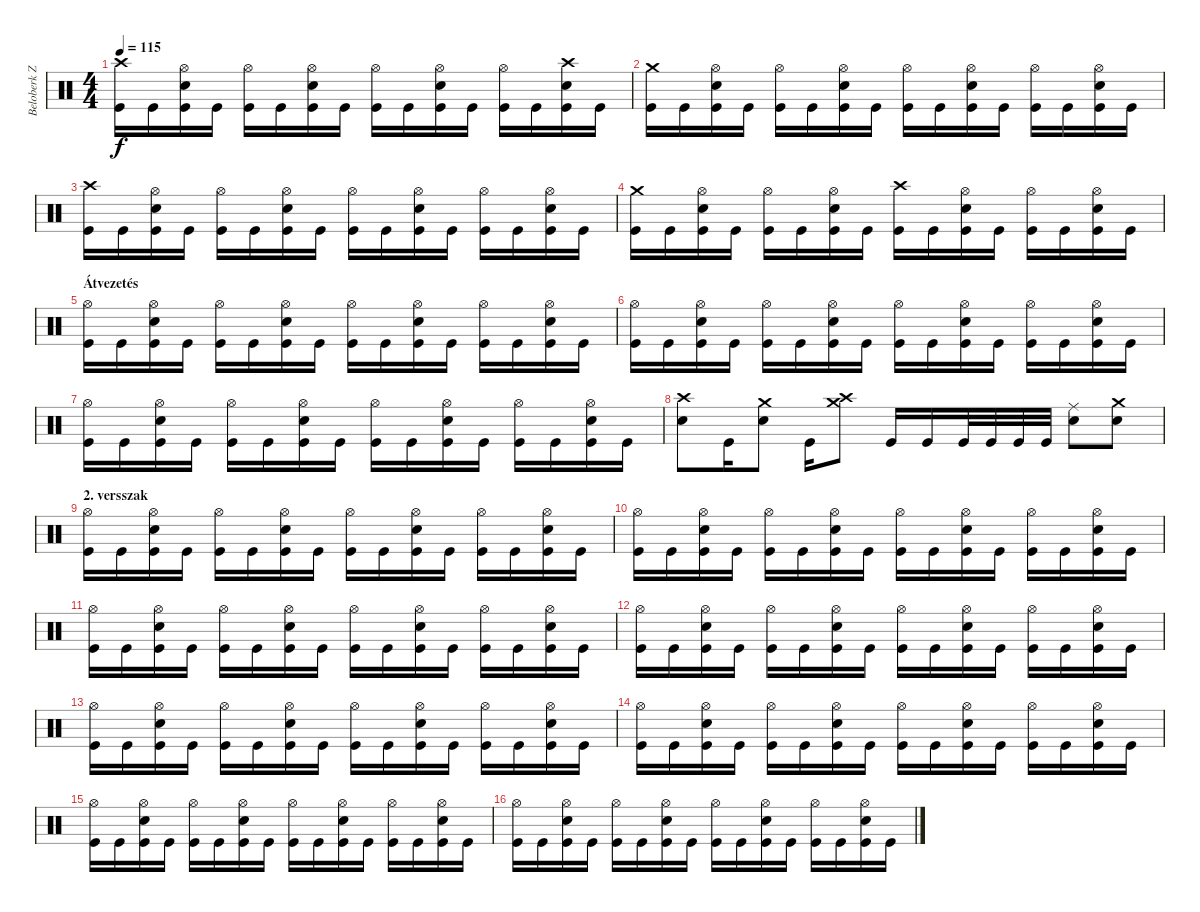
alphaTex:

\track ("Beloberk Zsolt /dob/" "Beloberk Z") {instrument percussion}
\staff {score}
\articulation defaults
\ts (4 4)
\tempo 115
\clef neutral
\ks c
("Crash high (hit)" "Kick (hit)").16{dy f} "Kick (hit)".16 ("Hi-Hat (open)" "Electric Snare (hit)" "Kick (hit)").16 "Kick (hit)".16 ("Hi-Hat (open)" "Kick (hit)").16 "Kick (hit)".16 ("Hi-Hat (open)" "Electric Snare (hit)" "Kick (hit)").16 "Kick (hit)".16 ("Hi-Hat (open)" "Kick (hit)").16 "Kick (hit)".16 ("Hi-Hat (open)" "Electric Snare (hit)" "Kick (hit)").16 "Kick (hit)".16 ("Hi-Hat (open)" "Kick (hit)").16 "Kick (hit)".16 ("Crash high (hit)" "Electric Snare (hit)" "Kick (hit)").16 "Kick (hit)".16 |
("Crash medium (hit)" "Kick (hit)").16 "Kick (hit)".16 ("Hi-Hat (open)" "Electric Snare (hit)" "Kick (hit)").16 "Kick (hit)".16 ("Hi-Hat (open)" "Kick (hit)").16 "Kick (hit)".16 ("Hi-Hat (open)" "Electric Snare (hit)" "Kick (hit)").16 "Kick (hit)".16 ("Hi-Hat (open)" "Kick (hit)").16 "Kick (hit)".16 ("Hi-Hat (open)" "Electric Snare (hit)" "Kick (hit)").16 "Kick (hit)".16 ("Hi-Hat (open)" "Kick (hit)").16 "Kick (hit)".16 ("Hi-Hat (open)" "Electric Snare (hit)" "Kick (hit)").16 "Kick (hit)".16 |
("Crash high (hit)" "Kick (hit)").16 "Kick (hit)".16 ("Hi-Hat (open)" "Electric Snare (hit)" "Kick (hit)").16 "Kick (hit)".16 ("Hi-Hat (open)" "Kick (hit)").16 "Kick (hit)".16 ("Hi-Hat (open)" "Electric Snare (hit)" "Kick (hit)").16 "Kick (hit)".16 ("Hi-Hat (open)" "Kick (hit)").16 "Kick (hit)".16 ("Hi-Hat (open)" "Electric Snare (hit)" "Kick (hit)").16 "Kick (hit)".16 ("Hi-Hat (open)" "Kick (hit)").16 "Kick (hit)".16 ("Hi-Hat (open)" "Electric Snare (hit)" "Kick (hit)").16 "Kick (hit)".16 |
("Crash medium (hit)" "Kick (hit)").16 "Kick (hit)".16 ("Hi-Hat (open)" "Electric Snare (hit)" "Kick (hit)").16 "Kick (hit)".16 ("Hi-Hat (open)" "Kick (hit)").16 "Kick (hit)".16 ("Hi-Hat (open)" "Electric Snare (hit)" "Kick (hit)").16 "Kick (hit)".16 ("Crash high (hit)" "Kick (hit)").16 "Kick (hit)".16 ("Hi-Hat (open)" "Electric Snare (hit)" "Kick (hit)").16 "Kick (hit)".16 ("Hi-Hat (open)" "Kick (hit)").16 "Kick (hit)".16 ("Hi-Hat (open)" "Electric Snare (hit)" "Kick (hit)").16 "Kick (hit)".16 |
\section ("" "Átvezetés")
("Hi-Hat (open)" "Kick (hit)").16 "Kick (hit)".16 ("Hi-Hat (open)" "Electric Snare (hit)" "Kick (hit)").16 "Kick (hit)".16 ("Hi-Hat (open)" "Kick (hit)").16 "Kick (hit)".16 ("Hi-Hat (open)" "Electric Snare (hit)" "Kick (hit)").16 "Kick (hit)".16 ("Hi-Hat (open)" "Kick (hit)").16 "Kick (hit)".16 ("Hi-Hat (open)" "Electric Snare (hit)" "Kick (hit)").16 "Kick (hit)".16 ("Hi-Hat (open)" "Kick (hit)").16 "Kick (hit)".16 ("Hi-Hat (open)" "Electric Snare (hit)" "Kick (hit)").16 "Kick (hit)".16 |
("Hi-Hat (open)" "Kick (hit)").16 "Kick (hit)".16 ("Hi-Hat (open)" "Electric Snare (hit)" "Kick (hit)").16 "Kick (hit)".16 ("Hi-Hat (open)" "Kick (hit)").16 "Kick (hit)".16 ("Hi-Hat (open)" "Electric Snare (hit)" "Kick (hit)").16 "Kick (hit)".16 ("Hi-Hat (open)" "Kick (hit)").16 "Kick (hit)".16 ("Hi-Hat (open)" "Electric Snare (hit)" "Kick (hit)").16 "Kick (hit)".16 ("Hi-Hat (open)" "Kick (hit)").16 "Kick (hit)".16 ("Hi-Hat (open)" "Electric Snare (hit)" "Kick (hit)").16 "Kick (hit)".16 |
("Hi-Hat (open)" "Kick (hit)").16 "Kick (hit)".16 ("Hi-Hat (open)" "Electric Snare (hit)" "Kick (hit)").16 "Kick (hit)".16 ("Hi-Hat (open)" "Kick (hit)").16 "Kick (hit)".16 ("Hi-Hat (open)" "Electric Snare (hit)" "Kick (hit)").16 "Kick (hit)".16 ("Hi-Hat (open)" "Kick (hit)").16 "Kick (hit)".16 ("Hi-Hat (open)" "Electric Snare (hit)" "Kick (hit)").16 "Kick (hit)".16 ("Hi-Hat (open)" "Kick (hit)").16 "Kick (hit)".16 ("Hi-Hat (open)" "Electric Snare (hit)" "Kick (hit)").16 "Kick (hit)".16 |
("Crash high (hit)" "Snare (hit) 2").8 "Kick (hit)".16 ("Crash medium (hit)" "Snare (hit) 2").8 "Kick (hit)".16 ("Crash medium (hit)" "Crash high (hit)").8 "Kick (hit)".16 "Kick (hit)".16 "Kick (hit)".32 "Kick (hit)".32 "Kick (hit)".32 "Kick (hit)".32 ("Ride (middle)" "Snare (hit) 2").8 ("Crash medium (hit)" "Snare (hit) 2").8 |
\section ("" "2. versszak")
("Hi-Hat (open)" "Kick (hit)").16 "Kick (hit)".16 ("Hi-Hat (open)" "Electric Snare (hit)" "Kick (hit)").16 "Kick (hit)".16 ("Hi-Hat (open)" "Kick (hit)").16 "Kick (hit)".16 ("Hi-Hat (open)" "Electric Snare (hit)" "Kick (hit)").16 "Kick (hit)".16 ("Hi-Hat (open)" "Kick (hit)").16 "Kick (hit)".16 ("Hi-Hat (open)" "Electric Snare (hit)" "Kick (hit)").16 "Kick (hit)".16 ("Hi-Hat (open)" "Kick (hit)").16 "Kick (hit)".16 ("Hi-Hat (open)" "Electric Snare (hit)" "Kick (hit)").16 "Kick (hit)".16 |
("Hi-Hat (open)" "Kick (hit)").16 "Kick (hit)".16 ("Hi-Hat (open)" "Electric Snare (hit)" "Kick (hit)").16 "Kick (hit)".16 ("Hi-Hat (open)" "Kick (hit)").16 "Kick (hit)".16 ("Hi-Hat (open)" "Electric Snare (hit)" "Kick (hit)").16 "Kick (hit)".16 ("Hi-Hat (open)" "Kick (hit)").16 "Kick (hit)".16 ("Hi-Hat (open)" "Electric Snare (hit)" "Kick (hit)").16 "Kick (hit)".16 ("Hi-Hat (open)" "Kick (hit)").16 "Kick (hit)".16 ("Hi-Hat (open)" "Electric Snare (hit)" "Kick (hit)").16 "Kick (hit)".16 |
("Hi-Hat (open)" "Kick (hit)").16 "Kick (hit)".16 ("Hi-Hat (open)" "Electric Snare (hit)" "Kick (hit)").16 "Kick (hit)".16 ("Hi-Hat (open)" "Kick (hit)").16 "Kick (hit)".16 ("Hi-Hat (open)" "Electric Snare (hit)" "Kick (hit)").16 "Kick (hit)".16 ("Hi-Hat (open)" "Kick (hit)").16 "Kick (hit)".16 ("Hi-Hat (open)" "Electric Snare (hit)" "Kick (hit)").16 "Kick (hit)".16 ("Hi-Hat (open)" "Kick (hit)").16 "Kick (hit)".16 ("Hi-Hat (open)" "Electric Snare (hit)" "Kick (hit)").16 "Kick (hit)".16 |
("Hi-Hat (open)" "Kick (hit)").16 "Kick (hit)".16 ("Hi-Hat (open)" "Electric Snare (hit)" "Kick (hit)").16 "Kick (hit)".16 ("Hi-Hat (open)" "Kick (hit)").16 "Kick (hit)".16 ("Hi-Hat (open)" "Electric Snare (hit)" "Kick (hit)").16 "Kick (hit)".16 ("Hi-Hat (open)" "Kick (hit)").16 "Kick (hit)".16 ("Hi-Hat (open)" "Electric Snare (hit)" "Kick (hit)").16 "Kick (hit)".16 ("Hi-Hat (open)" "Kick (hit)").16 "Kick (hit)".16 ("Hi-Hat (open)" "Electric Snare (hit)" "Kick (hit)").16 "Kick (hit)".16 |
("Hi-Hat (open)" "Kick (hit)").16 "Kick (hit)".16 ("Hi-Hat (open)" "Electric Snare (hit)" "Kick (hit)").16 "Kick (hit)".16 ("Hi-Hat (open)" "Kick (hit)").16 "Kick (hit)".16 ("Hi-Hat (open)" "Electric Snare (hit)" "Kick (hit)").16 "Kick (hit)".16 ("Hi-Hat (open)" "Kick (hit)").16 "Kick (hit)".16 ("Hi-Hat (open)" "Electric Snare (hit)" "Kick (hit)").16 "Kick (hit)".16 ("Hi-Hat (open)" "Kick (hit)").16 "Kick (hit)".16 ("Hi-Hat (open)" "Electric Snare (hit)" "Kick (hit)").16 "Kick (hit)".16 |
("Hi-Hat (open)" "Kick (hit)").16 "Kick (hit)".16 ("Hi-Hat (open)" "Electric Snare (hit)" "Kick (hit)").16 "Kick (hit)".16 ("Hi-Hat (open)" "Kick (hit)").16 "Kick (hit)".16 ("Hi-Hat (open)" "Electric Snare (hit)" "Kick (hit)").16 "Kick (hit)".16 ("Hi-Hat (open)" "Kick (hit)").16 "Kick (hit)".16 ("Hi-Hat (open)" "Electric Snare (hit)" "Kick (hit)").16 "Kick (hit)".16 ("Hi-Hat (open)" "Kick (hit)").16 "Kick (hit)".16 ("Hi-Hat (open)" "Electric Snare (hit)" "Kick (hit)").16 "Kick (hit)".16 |
("Hi-Hat (open)" "Kick (hit)").16 "Kick (hit)".16 ("Hi-Hat (open)" "Electric Snare (hit)" "Kick (hit)").16 "Kick (hit)".16 ("Hi-Hat (open)" "Kick (hit)").16 "Kick (hit)".16 ("Hi-Hat (open)" "Electric Snare (hit)" "Kick (hit)").16 "Kick (hit)".16 ("Hi-Hat (open)" "Kick (hit)").16 "Kick (hit)".16 ("Hi-Hat (open)" "Electric Snare (hit)" "Kick (hit)").16 "Kick (hit)".16 ("Hi-Hat (open)" "Kick (hit)").16 "Kick (hit)".16 ("Hi-Hat (open)" "Electric Snare (hit)" "Kick (hit)").16 "Kick (hit)".16 |
("Hi-Hat (open)" "Kick (hit)").16 "Kick (hit)".16 ("Hi-Hat (open)" "Electric Snare (hit)" "Kick (hit)").16 "Kick (hit)".16 ("Hi-Hat (open)" "Kick (hit)").16 "Kick (hit)".16 ("Hi-Hat (open)" "Electric Snare (hit)" "Kick (hit)").16 "Kick (hit)".16 ("Hi-Hat (open)" "Kick (hit)").16 "Kick (hit)".16 ("Hi-Hat (open)" "Electric Snare (hit)" "Kick (hit)").16 "Kick (hit)".16 ("Hi-Hat (open)" "Kick (hit)").16 "Kick (hit)".16 ("Hi-Hat (open)" "Electric Snare (hit)" "Kick (hit)").16 "Kick (hit)".16
